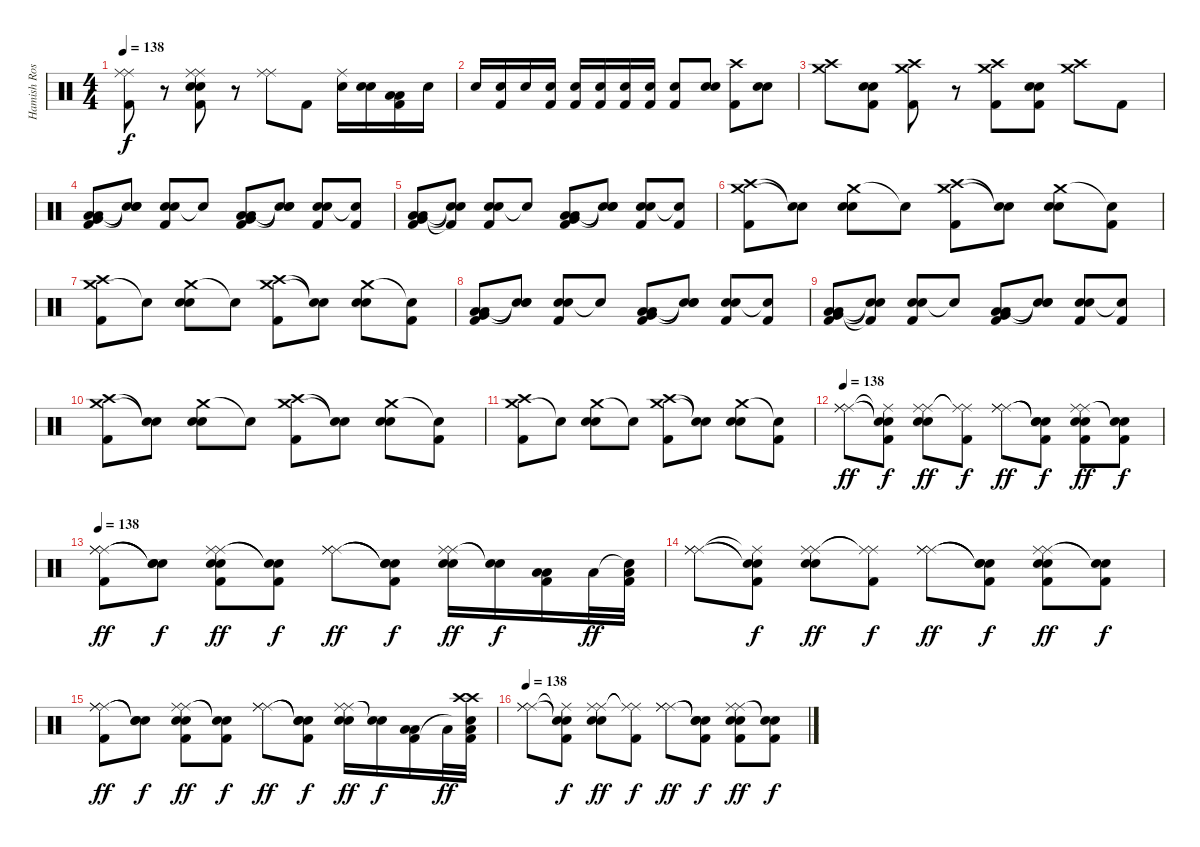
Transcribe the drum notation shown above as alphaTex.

\track ("Hamish Rosser" "Hamish Ros") {instrument percussion}
\staff {score}
\articulation defaults
\ts (4 4)
\tempo 138
\clef neutral
\ks c
("Ride (middle)" "Ride (middle)" "Kick (hit) 2").8{dy f} r.8 ("Ride (middle)" "Ride (middle)" "Snare (hit) 2" "Snare (hit) 2" "Kick (hit) 2").8 r.8 ("Ride (middle)" "Ride (middle)").8 "Kick (hit) 2".8 ("Ride (middle)" "Snare (hit) 2").16 ("Snare (hit) 2" "Snare (hit) 2").16 ("Low Tom (hit)" "Low Tom (hit)" "Kick (hit) 2").16 "Snare (hit) 2".16 |
"Snare (hit) 2".16 ("Snare (hit) 2" "Kick (hit) 2").16 "Snare (hit) 2".16 ("Snare (hit) 2" "Kick (hit) 2").16 ("Snare (hit) 2" "Kick (hit) 2").16 ("Snare (hit) 2" "Kick (hit) 2").16 ("Snare (hit) 2" "Kick (hit) 2").16 ("Snare (hit) 2" "Kick (hit) 2").16 ("Snare (hit) 2" "Kick (hit) 2").8 ("Snare (hit) 2" "Snare (hit) 2").8 ("Crash high (hit)" "Kick (hit) 2").8 ("Snare (hit) 2" "Snare (hit) 2").8 |
("Crash medium (hit)" "Crash high (hit)").8 ("Snare (hit) 2" "Snare (hit) 2" "Kick (hit) 2").8 ("Crash high (hit)" "Crash medium (hit)" "Kick (hit) 2").8 r.8 ("Crash high (hit)" "Crash medium (hit)" "Kick (hit) 2").8 ("Snare (hit) 2" "Snare (hit) 2" "Kick (hit) 2").8 ("Crash high (hit)" "Crash medium (hit)").8 "Kick (hit) 2".8 |
("Very Low Tom (hit)" "Low Tom (hit)" "Low Tom (hit)" "Kick (hit) 2").8 ("Snare (hit)"{t} "Snare (hit)"{t} "Snare (hit)"{t}).8 ("Snare (hit) 2" "Snare (hit) 2" "Kick (hit) 2").8 "Snare (hit)"{t}.8 ("Very Low Tom (hit)" "Low Tom (hit)" "Low Tom (hit)" "Kick (hit) 2").8 ("Snare (hit)"{t} "Snare (hit) 2"{t} "Snare (hit)"{t}).8 ("Snare (hit) 2" "Snare (hit) 2" "Kick (hit) 2").8 ("Snare (hit)"{t} "Kick (hit) 2").8 |
("Very Low Tom (hit)" "Low Tom (hit)" "Low Tom (hit)" "Kick (hit) 2").8 ("Snare (hit)"{t} "Snare (hit)"{t} "Kick (hit) 2"{t}).8 ("Snare (hit) 2" "Snare (hit) 2" "Kick (hit) 2").8 "Snare (hit)"{t}.8 ("Very Low Tom (hit)" "Low Tom (hit)" "Low Tom (hit)" "Kick (hit) 2").8 ("Snare (hit)"{t} "Snare (hit) 2"{t} "Snare (hit)"{t}).8 ("Snare (hit) 2" "Snare (hit) 2" "Kick (hit) 2").8 ("Snare (hit)"{t} "Kick (hit) 2").8 |
("Crash medium (hit)" "Crash high (hit)" "Kick (hit) 2").8 ("Snare (hit)"{t} "Snare (hit)"{t}).8 ("Crash medium (hit)" "Snare (hit) 2" "Snare (hit) 2").8 "Snare (hit)"{t}.8 ("Crash medium (hit)" "Crash high (hit)" "Kick (hit) 2").8 ("Snare (hit)"{t} "Snare (hit)"{t}).8 ("Crash medium (hit)" "Snare (hit) 2" "Snare (hit) 2").8 ("Snare (hit)"{t} "Kick (hit) 2").8 |
("Crash medium (hit)" "Crash high (hit)" "Kick (hit) 2").8 "Snare (hit)"{t}.8 ("Crash medium (hit)" "Snare (hit) 2" "Snare (hit) 2").8 "Snare (hit)"{t}.8 ("Crash medium (hit)" "Crash high (hit)" "Kick (hit) 2").8 ("Snare (hit)"{t} "Snare (hit)"{t}).8 ("Crash medium (hit)" "Snare (hit) 2" "Snare (hit) 2").8 ("Snare (hit)"{t} "Kick (hit) 2").8 |
("Very Low Tom (hit)" "Low Tom (hit)" "Low Tom (hit)" "Kick (hit) 2").8 ("Snare (hit)"{t} "Snare (hit)"{t} "Snare (hit)"{t}).8 ("Snare (hit) 2" "Snare (hit) 2" "Kick (hit) 2").8 "Snare (hit)"{t}.8 ("Very Low Tom (hit)" "Low Tom (hit)" "Low Tom (hit)" "Kick (hit) 2").8 ("Snare (hit)"{t} "Snare (hit) 2"{t} "Snare (hit)"{t}).8 ("Snare (hit) 2" "Snare (hit) 2" "Kick (hit) 2").8 ("Snare (hit)"{t} "Kick (hit) 2").8 |
("Very Low Tom (hit)" "Low Tom (hit)" "Low Tom (hit)" "Kick (hit) 2").8 ("Snare (hit)"{t} "Snare (hit)"{t} "Kick (hit) 2"{t}).8 ("Snare (hit) 2" "Snare (hit) 2" "Kick (hit) 2").8 "Snare (hit)"{t}.8 ("Very Low Tom (hit)" "Low Tom (hit)" "Low Tom (hit)" "Kick (hit) 2").8 ("Snare (hit)"{t} "Snare (hit) 2"{t} "Snare (hit)"{t}).8 ("Snare (hit) 2" "Snare (hit) 2" "Kick (hit) 2").8 ("Snare (hit)"{t} "Kick (hit) 2").8 |
("Crash medium (hit)" "Crash high (hit)" "Kick (hit) 2").8 ("Snare (hit)"{t} "Snare (hit)"{t}).8 ("Crash medium (hit)" "Snare (hit) 2" "Snare (hit) 2").8 "Snare (hit)"{t}.8 ("Crash medium (hit)" "Crash high (hit)" "Kick (hit) 2").8 ("Snare (hit)"{t} "Snare (hit)"{t}).8 ("Crash medium (hit)" "Snare (hit) 2" "Snare (hit) 2").8 ("Snare (hit)"{t} "Kick (hit) 2").8 |
("Crash medium (hit)" "Crash high (hit)" "Kick (hit) 2").8 "Snare (hit)"{t}.8 ("Crash medium (hit)" "Snare (hit) 2" "Snare (hit) 2").8 "Snare (hit)"{t}.8 ("Crash medium (hit)" "Crash high (hit)" "Kick (hit) 2").8 ("Snare (hit)"{t} "Snare (hit)"{t}).8 ("Crash medium (hit)" "Snare (hit) 2" "Snare (hit) 2").8 ("Snare (hit)"{t} "Kick (hit) 2").8 |
\tempo 138
("Ride (middle)" "Ride (middle)" "Ride (middle)").8{dy ff} ("Snare (hit)"{t} "Snare (hit)"{t} "Ride (middle)"{t} "Kick (hit) 2").8{dy f} ("Ride (middle)" "Ride (middle)" "Snare (hit) 2" "Snare (hit) 2").8{dy ff} ("Ride (middle)"{t} "Ride (middle)"{t} "Kick (hit) 2").8{dy f} ("Ride (middle)" "Ride (middle)" "Ride (middle)").8{dy ff} ("Snare (hit)"{t} "Snare (hit)"{t} "Snare (hit) 2"{t} "Kick (hit) 2").8{dy f} ("Ride (middle)" "Ride (middle)" "Snare (hit) 2" "Snare (hit) 2" "Kick (hit) 2").8{dy ff} ("Snare (hit)"{t} "Snare (hit)"{t} "Kick (hit) 2").8{dy f} |
\tempo 138
("Ride (middle)" "Ride (middle)" "Ride (middle)" "Kick (hit) 2").8{dy ff} ("Snare (hit)"{t} "Snare (hit)"{t} "Snare (hit)"{t}).8{dy f} ("Ride (middle)" "Ride (middle)" "Snare (hit) 2" "Snare (hit) 2" "Kick (hit) 2").8{dy ff} ("Snare (hit)"{t} "Snare (hit)"{t} "Kick (hit) 2").8{dy f} ("Ride (middle)" "Ride (middle)" "Ride (middle)").8{dy ff} ("Snare (hit)"{t} "Snare (hit)"{t} "Snare (hit) 2"{t} "Kick (hit) 2").8{dy f} ("Ride (middle)" "Ride (middle)" "Snare (hit) 2" "Snare (hit) 2").16{dy ff} ("Snare (hit)"{t} "Snare (hit)"{t}).16{dy f} ("Low Tom (hit)" "Low Tom (hit)" "Kick (hit) 2").16 "Low Tom (hit)".32{dy ff} ("Snare (hit)"{t} "Low Tom (hit)" "Kick (hit) 2").32 |
("Ride (middle)" "Ride (middle)" "Ride (middle)").8 ("Snare (hit)"{t} "Snare (hit)"{t} "Ride (middle)"{t} "Kick (hit) 2").8{dy f} ("Ride (middle)" "Ride (middle)" "Snare (hit) 2" "Snare (hit) 2").8{dy ff} ("Ride (middle)"{t} "Ride (middle)"{t} "Kick (hit) 2").8{dy f} ("Ride (middle)" "Ride (middle)" "Ride (middle)").8{dy ff} ("Snare (hit)"{t} "Snare (hit)"{t} "Snare (hit) 2"{t} "Kick (hit) 2").8{dy f} ("Ride (middle)" "Ride (middle)" "Snare (hit) 2" "Snare (hit) 2" "Kick (hit) 2").8{dy ff} ("Snare (hit)"{t} "Snare (hit)"{t} "Kick (hit) 2").8{dy f} |
("Ride (middle)" "Ride (middle)" "Ride (middle)" "Kick (hit) 2").8{dy ff} ("Snare (hit)"{t} "Snare (hit)"{t} "Snare (hit)"{t}).8{dy f} ("Ride (middle)" "Ride (middle)" "Snare (hit) 2" "Snare (hit) 2" "Kick (hit) 2").8{dy ff} ("Snare (hit)"{t} "Snare (hit)"{t} "Kick (hit) 2").8{dy f} ("Ride (middle)" "Ride (middle)" "Ride (middle)").8{dy ff} ("Snare (hit)"{t} "Snare (hit)"{t} "Snare (hit) 2"{t} "Kick (hit) 2").8{dy f} ("Ride (middle)" "Ride (middle)" "Snare (hit) 2" "Snare (hit) 2").16{dy ff} ("Snare (hit)"{t} "Snare (hit)"{t}).16{dy f} ("Low Tom (hit)" "Low Tom (hit)" "Kick (hit) 2").16 "Low Tom (hit)".32{dy ff} ("Crash high (hit)" "Crash high (hit)" "Snare (hit)"{t} "Low Tom (hit)" "Kick (hit) 2").32 |
\tempo 138
("Ride (middle)" "Ride (middle)" "Ride (middle)").8 ("Snare (hit)"{t} "Snare (hit)"{t} "Ride (middle)"{t} "Kick (hit) 2").8{dy f} ("Ride (middle)" "Ride (middle)" "Snare (hit) 2" "Snare (hit) 2").8{dy ff} ("Ride (middle)"{t} "Ride (middle)"{t} "Kick (hit) 2").8{dy f} ("Ride (middle)" "Ride (middle)" "Ride (middle)").8{dy ff} ("Snare (hit)"{t} "Snare (hit)"{t} "Snare (hit) 2"{t} "Kick (hit) 2").8{dy f} ("Ride (middle)" "Ride (middle)" "Snare (hit) 2" "Snare (hit) 2" "Kick (hit) 2").8{dy ff} ("Snare (hit)"{t} "Snare (hit)"{t} "Kick (hit) 2").8{dy f}
